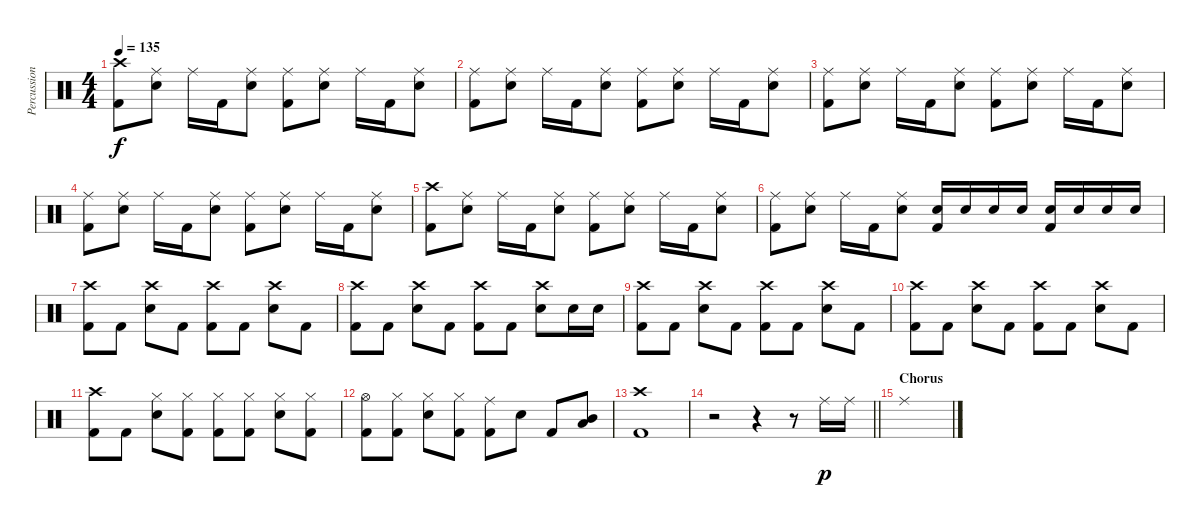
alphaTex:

\track ("Percussion" "Percussion") {instrument percussion}
\staff {score}
\articulation defaults
\ts (4 4)
\tempo 135
\clef neutral
\ks c
("Crash high (hit)" "Kick (hit) 2").8{dy f} ("Snare (hit) 2" "Ride (middle)").8 "Ride (middle)".16 "Kick (hit) 2".16 ("Snare (hit) 2" "Ride (middle)").8 ("Ride (middle)" "Kick (hit) 2").8 ("Snare (hit) 2" "Ride (middle)").8 "Ride (middle)".16 "Kick (hit) 2".16 ("Snare (hit) 2" "Ride (middle)").8 |
("Ride (middle)" "Kick (hit) 2").8 ("Snare (hit) 2" "Ride (middle)").8 "Ride (middle)".16 "Kick (hit) 2".16 ("Snare (hit) 2" "Ride (middle)").8 ("Ride (middle)" "Kick (hit) 2").8 ("Snare (hit) 2" "Ride (middle)").8 "Ride (middle)".16 "Kick (hit) 2".16 ("Snare (hit) 2" "Ride (middle)").8 |
("Ride (middle)" "Kick (hit) 2").8 ("Snare (hit) 2" "Ride (middle)").8 "Ride (middle)".16 "Kick (hit) 2".16 ("Snare (hit) 2" "Ride (middle)").8 ("Ride (middle)" "Kick (hit) 2").8 ("Snare (hit) 2" "Ride (middle)").8 "Ride (middle)".16 "Kick (hit) 2".16 ("Snare (hit) 2" "Ride (middle)").8 |
("Ride (middle)" "Kick (hit) 2").8 ("Snare (hit) 2" "Ride (middle)").8 "Ride (middle)".16 "Kick (hit) 2".16 ("Snare (hit) 2" "Ride (middle)").8 ("Ride (middle)" "Kick (hit) 2").8 ("Snare (hit) 2" "Ride (middle)").8 "Ride (middle)".16 "Kick (hit) 2".16 ("Snare (hit) 2" "Ride (middle)").8 |
("Crash high (hit)" "Kick (hit) 2").8 ("Snare (hit) 2" "Ride (middle)").8 "Ride (middle)".16 "Kick (hit) 2".16 ("Snare (hit) 2" "Ride (middle)").8 ("Ride (middle)" "Kick (hit) 2").8 ("Snare (hit) 2" "Ride (middle)").8 "Ride (middle)".16 "Kick (hit) 2".16 ("Snare (hit) 2" "Ride (middle)").8 |
("Ride (middle)" "Kick (hit) 2").8 ("Snare (hit) 2" "Ride (middle)").8 "Ride (middle)".16 "Kick (hit) 2".16 ("Snare (hit) 2" "Ride (middle)").8 ("Snare (hit) 2" "Kick (hit) 2").16 "Snare (hit) 2".16 "Snare (hit) 2".16 "Snare (hit) 2".16 ("Snare (hit) 2" "Kick (hit) 2").16 "Snare (hit) 2".16 "Snare (hit) 2".16 "Snare (hit) 2".16 |
("Kick (hit) 2" "Crash high (hit)").8 "Kick (hit) 2".8 ("Snare (hit) 2" "Crash high (hit)").8 "Kick (hit) 2".8 ("Kick (hit) 2" "Crash high (hit)").8 "Kick (hit) 2".8 ("Snare (hit) 2" "Crash high (hit)").8 "Kick (hit) 2".8 |
("Kick (hit) 2" "Crash high (hit)").8 "Kick (hit) 2".8 ("Snare (hit) 2" "Crash high (hit)").8 "Kick (hit) 2".8 ("Kick (hit) 2" "Crash high (hit)").8 "Kick (hit) 2".8 ("Snare (hit) 2" "Crash high (hit)").8 "Snare (hit) 2".16 "Snare (hit) 2".16 |
("Kick (hit) 2" "Crash high (hit)").8 "Kick (hit) 2".8 ("Snare (hit) 2" "Crash high (hit)").8 "Kick (hit) 2".8 ("Kick (hit) 2" "Crash high (hit)").8 "Kick (hit) 2".8 ("Snare (hit) 2" "Crash high (hit)").8 "Kick (hit) 2".8 |
("Kick (hit) 2" "Crash high (hit)").8 "Kick (hit) 2".8 ("Snare (hit) 2" "Crash high (hit)").8 "Kick (hit) 2".8 ("Kick (hit) 2" "Crash high (hit)").8 "Kick (hit) 2".8 ("Snare (hit) 2" "Crash high (hit)").8 "Kick (hit) 2".8 |
("Kick (hit) 2" "Crash high (hit)").8 "Kick (hit) 2".8 ("Snare (hit) 2" "Hi-Hat (closed)").8 ("Kick (hit) 2" "Hi-Hat (closed)").8 ("Kick (hit) 2" "Hi-Hat (closed)").8 ("Kick (hit) 2" "Hi-Hat (closed)").8 ("Snare (hit) 2" "Hi-Hat (closed)").8 ("Kick (hit) 2" "Hi-Hat (closed)").8 |
("Kick (hit) 2" "Hi-Hat (open)").8 ("Kick (hit) 2" "Hi-Hat (closed)").8 ("Snare (hit) 2" "Hi-Hat (closed)").8 ("Kick (hit) 2" "Hi-Hat (closed)").8 ("Kick (hit) 2" "Ride (middle)").8 "Snare (hit) 2".8 "Kick (hit) 2".8 ("Low Floor Tom (hit)" "Mid Tom (hit)").8 |
("Kick (hit) 2" "Crash high (hit)").1 |
\barLineRight lightlight
r.2 r.4 r.8 "Ride (middle)".16{dy p} "Ride (middle)".16 |
\section ("" "Chorus")
"Ride (middle)".1
